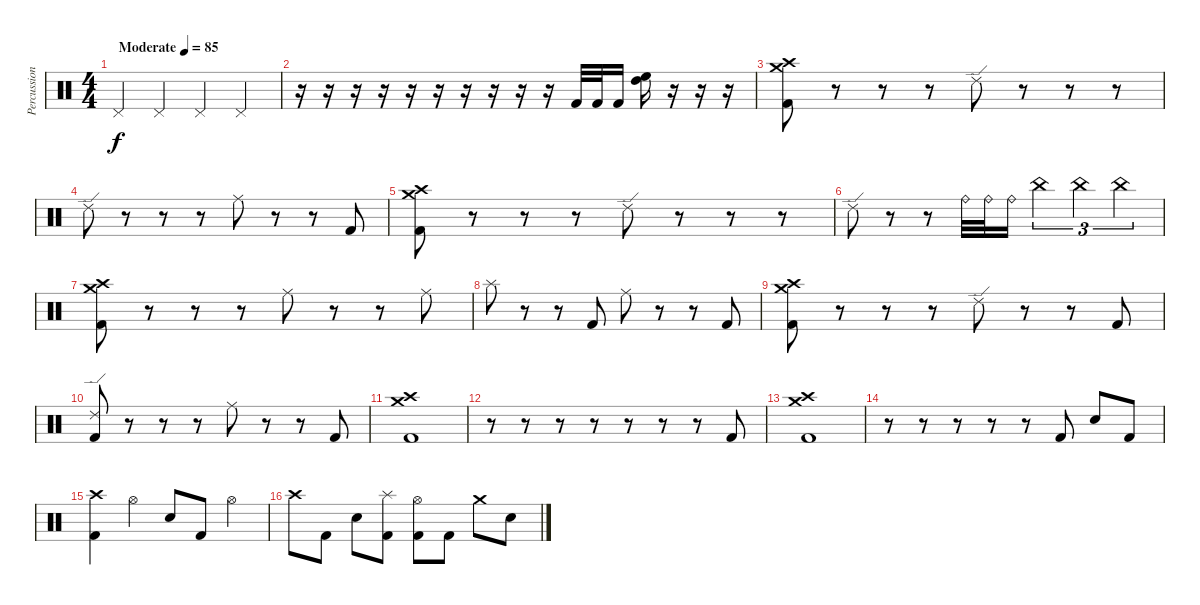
\track ("Percussion" "Percussion") {instrument percussion}
\staff {score}
\articulation defaults
\ts (4 4)
\tempo (85 "Moderate")
\clef neutral
\ks c "Pedal Hi-Hat (hit)".4{dy f} "Pedal Hi-Hat (hit)".4 "Pedal Hi-Hat (hit)".4 "Pedal Hi-Hat (hit)".4
|
r.16 r.16 r.16 r.16 r.16 r.16 r.16 r.16 r.16 r.16 "Kick (hit) 2".32 "Kick (hit) 2".32 "Kick (hit) 2".16 ("High Tom (hit)" "High Floor Tom (hit)").16 r.16 r.16 r.16 |
("Crash high (hit)" "Crash medium (hit)" "Kick (hit) 2").8 r.8 r.8 r.8 "Ride (edge) 2".8 r.8 r.8 r.8 |
"Ride (edge) 2".8 r.8 r.8 r.8 "Ride (middle)".8 r.8 r.8 "Kick (hit) 2".8 |
("Crash high (hit)" "Crash medium (hit)" "Kick (hit) 2").8 r.8 r.8 r.8 "Ride (edge) 2".8 r.8 r.8 r.8 |
"Ride (edge) 2".8 r.8 r.8 "Ride (bell)".32 "Ride (bell)".32 "Ride (bell)".16 "China (hit)".4{tu (3 2)} "China (hit)".4{tu (3 2)} "China (hit)".4{tu (3 2)} |
("Crash high (hit)" "Crash medium (hit)" "Kick (hit) 2").8 r.8 r.8 r.8 "Ride (middle)".8 r.8 r.8 "Ride (middle)".8 |
"Splash (hit)".8 r.8 r.8 "Kick (hit) 2".8 "Ride (middle)".8 r.8 r.8 "Kick (hit) 2".8 |
("Crash high (hit)" "Crash medium (hit)" "Kick (hit) 2").8 r.8 r.8 r.8 "Ride (edge) 2".8 r.8 r.8 "Kick (hit) 2".8 |
("Ride (edge) 2" "Kick (hit) 2").8 r.8 r.8 r.8 "Ride (middle)".8 r.8 r.8 "Kick (hit) 2".8 |
("Crash high (hit)" "Crash medium (hit)" "Kick (hit) 2").1 |
r.8 r.8 r.8 r.8 r.8 r.8 r.8 "Kick (hit) 2".8 |
("Crash high (hit)" "Crash medium (hit)" "Kick (hit) 2").1 |
r.8 r.8 r.8 r.8 r.8 "Kick (hit) 2".8 "Electric Snare (hit)".8 "Kick (hit) 2".8 |
("Crash high (hit)" "Kick (hit) 2").4 "Hi-Hat (open)".4 "Electric Snare (hit)".8 "Kick (hit) 2".8 "Hi-Hat (open)".4 |
"Crash high (hit)".8 "Kick (hit) 2".8 "Electric Snare (hit)".8 ("Splash (hit)" "Kick (hit) 2").8 ("Hi-Hat (open)" "Kick (hit) 2").8 "Kick (hit) 2".8 "Crash medium (hit)".8 "Electric Snare (hit)".8
